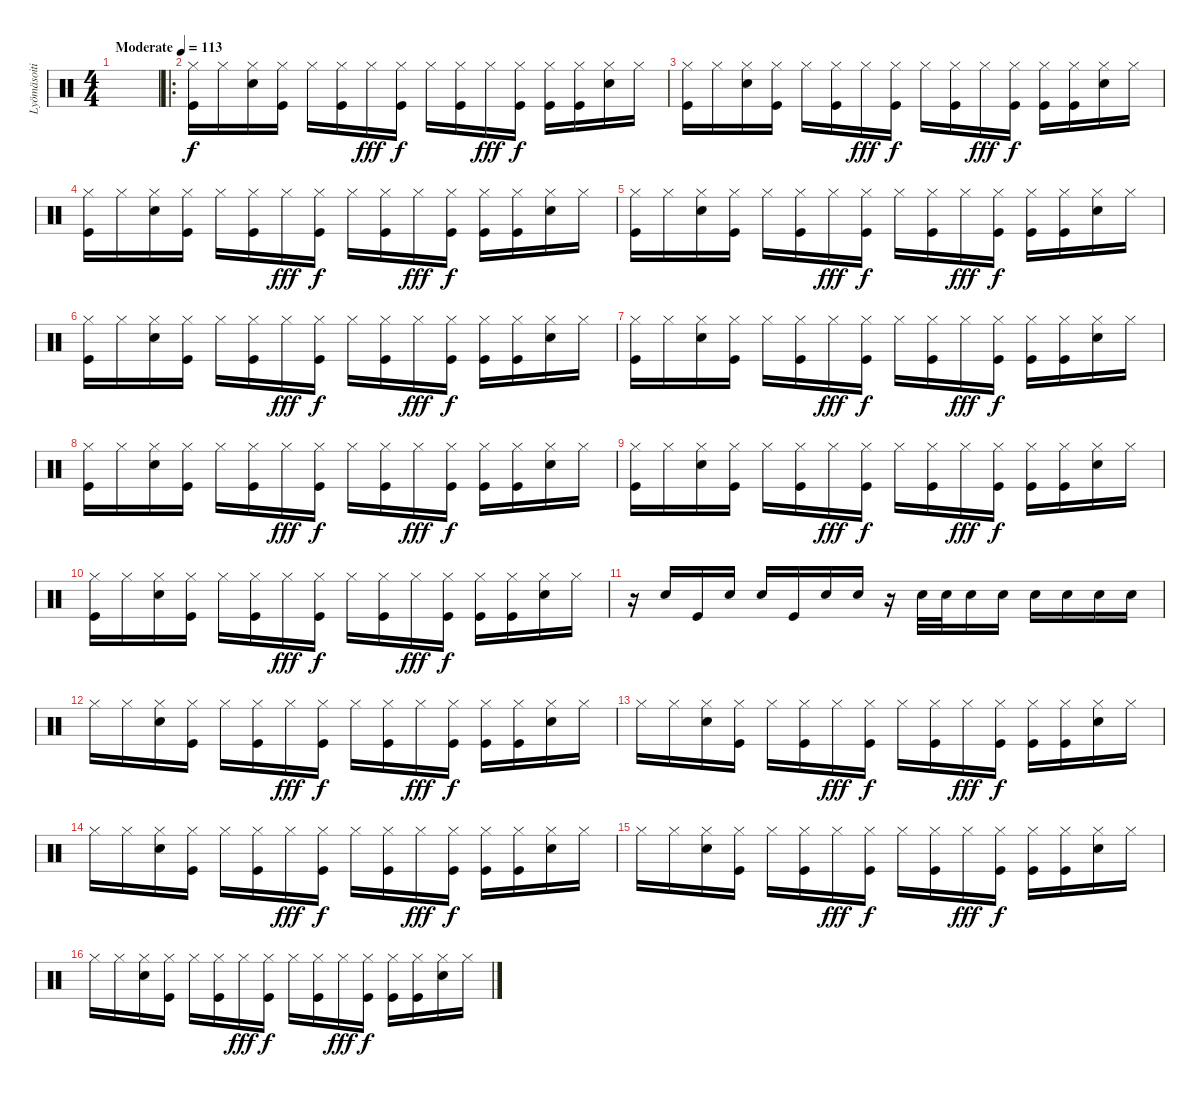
\track ("Lyömäsoitin" "Lyömäsoiti") {instrument percussion}
\staff {score}
\articulation defaults
\ts (4 4)
\tempo (113 "Moderate")
\clef neutral
\ks c
|
\ro
("Hi-Hat (closed)" "Kick (hit)").16 "Hi-Hat (closed)".16 ("Hi-Hat (closed)" "Snare (hit) 2").16 ("Hi-Hat (closed)" "Kick (hit)").16 "Hi-Hat (closed)".16 ("Hi-Hat (closed)" "Kick (hit)").16 "Hi-Hat (closed)".16{dy fff} ("Hi-Hat (closed)" "Kick (hit)").16{dy f} "Hi-Hat (closed)".16 ("Hi-Hat (closed)" "Kick (hit)").16 "Hi-Hat (closed)".16{dy fff} ("Hi-Hat (closed)" "Kick (hit)").16{dy f} ("Hi-Hat (closed)" "Kick (hit)").16 ("Hi-Hat (closed)" "Kick (hit)").16 ("Hi-Hat (closed)" "Snare (hit) 2").16 "Hi-Hat (closed)".16 |
("Hi-Hat (closed)" "Kick (hit)").16 "Hi-Hat (closed)".16 ("Hi-Hat (closed)" "Snare (hit) 2").16 ("Hi-Hat (closed)" "Kick (hit)").16 "Hi-Hat (closed)".16 ("Hi-Hat (closed)" "Kick (hit)").16 "Hi-Hat (closed)".16{dy fff} ("Hi-Hat (closed)" "Kick (hit)").16{dy f} "Hi-Hat (closed)".16 ("Hi-Hat (closed)" "Kick (hit)").16 "Hi-Hat (closed)".16{dy fff} ("Hi-Hat (closed)" "Kick (hit)").16{dy f} ("Hi-Hat (closed)" "Kick (hit)").16 ("Hi-Hat (closed)" "Kick (hit)").16 ("Hi-Hat (closed)" "Snare (hit) 2").16 "Hi-Hat (closed)".16 |
("Hi-Hat (closed)" "Kick (hit)").16 "Hi-Hat (closed)".16 ("Hi-Hat (closed)" "Snare (hit) 2").16 ("Hi-Hat (closed)" "Kick (hit)").16 "Hi-Hat (closed)".16 ("Hi-Hat (closed)" "Kick (hit)").16 "Hi-Hat (closed)".16{dy fff} ("Hi-Hat (closed)" "Kick (hit)").16{dy f} "Hi-Hat (closed)".16 ("Hi-Hat (closed)" "Kick (hit)").16 "Hi-Hat (closed)".16{dy fff} ("Hi-Hat (closed)" "Kick (hit)").16{dy f} ("Hi-Hat (closed)" "Kick (hit)").16 ("Hi-Hat (closed)" "Kick (hit)").16 ("Hi-Hat (closed)" "Snare (hit) 2").16 "Hi-Hat (closed)".16 |
("Hi-Hat (closed)" "Kick (hit)").16 "Hi-Hat (closed)".16 ("Hi-Hat (closed)" "Snare (hit) 2").16 ("Hi-Hat (closed)" "Kick (hit)").16 "Hi-Hat (closed)".16 ("Hi-Hat (closed)" "Kick (hit)").16 "Hi-Hat (closed)".16{dy fff} ("Hi-Hat (closed)" "Kick (hit)").16{dy f} "Hi-Hat (closed)".16 ("Hi-Hat (closed)" "Kick (hit)").16 "Hi-Hat (closed)".16{dy fff} ("Hi-Hat (closed)" "Kick (hit)").16{dy f} ("Hi-Hat (closed)" "Kick (hit)").16 ("Hi-Hat (closed)" "Kick (hit)").16 ("Hi-Hat (closed)" "Snare (hit) 2").16 "Hi-Hat (closed)".16 |
("Hi-Hat (closed)" "Kick (hit)").16 "Hi-Hat (closed)".16 ("Hi-Hat (closed)" "Snare (hit) 2").16 ("Hi-Hat (closed)" "Kick (hit)").16 "Hi-Hat (closed)".16 ("Hi-Hat (closed)" "Kick (hit)").16 "Hi-Hat (closed)".16{dy fff} ("Hi-Hat (closed)" "Kick (hit)").16{dy f} "Hi-Hat (closed)".16 ("Hi-Hat (closed)" "Kick (hit)").16 "Hi-Hat (closed)".16{dy fff} ("Hi-Hat (closed)" "Kick (hit)").16{dy f} ("Hi-Hat (closed)" "Kick (hit)").16 ("Hi-Hat (closed)" "Kick (hit)").16 ("Hi-Hat (closed)" "Snare (hit) 2").16 "Hi-Hat (closed)".16 |
("Hi-Hat (closed)" "Kick (hit)").16 "Hi-Hat (closed)".16 ("Hi-Hat (closed)" "Snare (hit) 2").16 ("Hi-Hat (closed)" "Kick (hit)").16 "Hi-Hat (closed)".16 ("Hi-Hat (closed)" "Kick (hit)").16 "Hi-Hat (closed)".16{dy fff} ("Hi-Hat (closed)" "Kick (hit)").16{dy f} "Hi-Hat (closed)".16 ("Hi-Hat (closed)" "Kick (hit)").16 "Hi-Hat (closed)".16{dy fff} ("Hi-Hat (closed)" "Kick (hit)").16{dy f} ("Hi-Hat (closed)" "Kick (hit)").16 ("Hi-Hat (closed)" "Kick (hit)").16 ("Hi-Hat (closed)" "Snare (hit) 2").16 "Hi-Hat (closed)".16 |
("Hi-Hat (closed)" "Kick (hit)").16 "Hi-Hat (closed)".16 ("Hi-Hat (closed)" "Snare (hit) 2").16 ("Hi-Hat (closed)" "Kick (hit)").16 "Hi-Hat (closed)".16 ("Hi-Hat (closed)" "Kick (hit)").16 "Hi-Hat (closed)".16{dy fff} ("Hi-Hat (closed)" "Kick (hit)").16{dy f} "Hi-Hat (closed)".16 ("Hi-Hat (closed)" "Kick (hit)").16 "Hi-Hat (closed)".16{dy fff} ("Hi-Hat (closed)" "Kick (hit)").16{dy f} ("Hi-Hat (closed)" "Kick (hit)").16 ("Hi-Hat (closed)" "Kick (hit)").16 ("Hi-Hat (closed)" "Snare (hit) 2").16 "Hi-Hat (closed)".16 |
("Hi-Hat (closed)" "Kick (hit)").16 "Hi-Hat (closed)".16 ("Hi-Hat (closed)" "Snare (hit) 2").16 ("Hi-Hat (closed)" "Kick (hit)").16 "Hi-Hat (closed)".16 ("Hi-Hat (closed)" "Kick (hit)").16 "Hi-Hat (closed)".16{dy fff} ("Hi-Hat (closed)" "Kick (hit)").16{dy f} "Hi-Hat (closed)".16 ("Hi-Hat (closed)" "Kick (hit)").16 "Hi-Hat (closed)".16{dy fff} ("Hi-Hat (closed)" "Kick (hit)").16{dy f} ("Hi-Hat (closed)" "Kick (hit)").16 ("Hi-Hat (closed)" "Kick (hit)").16 ("Hi-Hat (closed)" "Snare (hit) 2").16 "Hi-Hat (closed)".16 |
("Hi-Hat (closed)" "Kick (hit)").16 "Hi-Hat (closed)".16 ("Hi-Hat (closed)" "Snare (hit) 2").16 ("Hi-Hat (closed)" "Kick (hit)").16 "Hi-Hat (closed)".16 ("Hi-Hat (closed)" "Kick (hit)").16 "Hi-Hat (closed)".16{dy fff} ("Hi-Hat (closed)" "Kick (hit)").16{dy f} "Hi-Hat (closed)".16 ("Hi-Hat (closed)" "Kick (hit)").16 "Hi-Hat (closed)".16{dy fff} ("Hi-Hat (closed)" "Kick (hit)").16{dy f} ("Hi-Hat (closed)" "Kick (hit)").16 ("Hi-Hat (closed)" "Kick (hit)").16 ("Hi-Hat (closed)" "Snare (hit) 2").16 "Hi-Hat (closed)".16 |
r.16 "Snare (hit) 2".16 "Kick (hit)".16 "Snare (hit) 2".16 "Snare (hit) 2".16 "Kick (hit)".16 "Snare (hit) 2".16 "Snare (hit) 2".16 r.16 "Snare (hit) 2".32 "Snare (hit) 2".32 "Snare (hit) 2".16 "Snare (hit) 2".16 "Snare (hit) 2".16 "Snare (hit) 2".16 "Snare (hit) 2".16 "Snare (hit) 2".16 |
"Hi-Hat (closed)".16 "Hi-Hat (closed)".16 ("Hi-Hat (closed)" "Snare (hit) 2").16 ("Hi-Hat (closed)" "Kick (hit)").16 "Hi-Hat (closed)".16 ("Hi-Hat (closed)" "Kick (hit)").16 "Hi-Hat (closed)".16{dy fff} ("Hi-Hat (closed)" "Kick (hit)").16{dy f} "Hi-Hat (closed)".16 ("Hi-Hat (closed)" "Kick (hit)").16 "Hi-Hat (closed)".16{dy fff} ("Hi-Hat (closed)" "Kick (hit)").16{dy f} ("Hi-Hat (closed)" "Kick (hit)").16 ("Hi-Hat (closed)" "Kick (hit)").16 ("Hi-Hat (closed)" "Snare (hit) 2").16 "Hi-Hat (closed)".16 |
"Hi-Hat (closed)".16 "Hi-Hat (closed)".16 ("Hi-Hat (closed)" "Snare (hit) 2").16 ("Hi-Hat (closed)" "Kick (hit)").16 "Hi-Hat (closed)".16 ("Hi-Hat (closed)" "Kick (hit)").16 "Hi-Hat (closed)".16{dy fff} ("Hi-Hat (closed)" "Kick (hit)").16{dy f} "Hi-Hat (closed)".16 ("Hi-Hat (closed)" "Kick (hit)").16 "Hi-Hat (closed)".16{dy fff} ("Hi-Hat (closed)" "Kick (hit)").16{dy f} ("Hi-Hat (closed)" "Kick (hit)").16 ("Hi-Hat (closed)" "Kick (hit)").16 ("Hi-Hat (closed)" "Snare (hit) 2").16 "Hi-Hat (closed)".16 |
"Hi-Hat (closed)".16 "Hi-Hat (closed)".16 ("Hi-Hat (closed)" "Snare (hit) 2").16 ("Hi-Hat (closed)" "Kick (hit)").16 "Hi-Hat (closed)".16 ("Hi-Hat (closed)" "Kick (hit)").16 "Hi-Hat (closed)".16{dy fff} ("Hi-Hat (closed)" "Kick (hit)").16{dy f} "Hi-Hat (closed)".16 ("Hi-Hat (closed)" "Kick (hit)").16 "Hi-Hat (closed)".16{dy fff} ("Hi-Hat (closed)" "Kick (hit)").16{dy f} ("Hi-Hat (closed)" "Kick (hit)").16 ("Hi-Hat (closed)" "Kick (hit)").16 ("Hi-Hat (closed)" "Snare (hit) 2").16 "Hi-Hat (closed)".16 |
"Hi-Hat (closed)".16 "Hi-Hat (closed)".16 ("Hi-Hat (closed)" "Snare (hit) 2").16 ("Hi-Hat (closed)" "Kick (hit)").16 "Hi-Hat (closed)".16 ("Hi-Hat (closed)" "Kick (hit)").16 "Hi-Hat (closed)".16{dy fff} ("Hi-Hat (closed)" "Kick (hit)").16{dy f} "Hi-Hat (closed)".16 ("Hi-Hat (closed)" "Kick (hit)").16 "Hi-Hat (closed)".16{dy fff} ("Hi-Hat (closed)" "Kick (hit)").16{dy f} ("Hi-Hat (closed)" "Kick (hit)").16 ("Hi-Hat (closed)" "Kick (hit)").16 ("Hi-Hat (closed)" "Snare (hit) 2").16 "Hi-Hat (closed)".16 |
"Hi-Hat (closed)".16 "Hi-Hat (closed)".16 ("Hi-Hat (closed)" "Snare (hit) 2").16 ("Hi-Hat (closed)" "Kick (hit)").16 "Hi-Hat (closed)".16 ("Hi-Hat (closed)" "Kick (hit)").16 "Hi-Hat (closed)".16{dy fff} ("Hi-Hat (closed)" "Kick (hit)").16{dy f} "Hi-Hat (closed)".16 ("Hi-Hat (closed)" "Kick (hit)").16 "Hi-Hat (closed)".16{dy fff} ("Hi-Hat (closed)" "Kick (hit)").16{dy f} ("Hi-Hat (closed)" "Kick (hit)").16 ("Hi-Hat (closed)" "Kick (hit)").16 ("Hi-Hat (closed)" "Snare (hit) 2").16 "Hi-Hat (closed)".16
